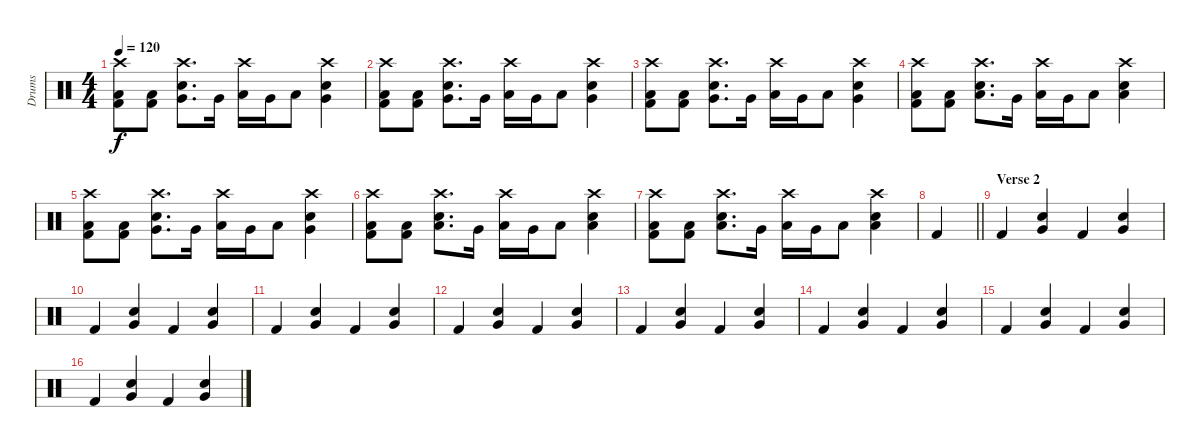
\track ("Drums" "Drums") {instrument percussion}
\staff {score}
\articulation defaults
\ts (4 4)
\tempo 120
\clef neutral
\ks c
("Low Floor Tom (hit)" "Kick (hit) 2" "Crash high (hit)").8{dy f} ("Low Floor Tom (hit)" "Kick (hit) 2").8 ("Very Low Tom (hit)" "Electric Snare (hit)" "Crash high (hit)").8{d} "Very Low Tom (hit)".16 ("Low Tom (hit)" "Crash high (hit)").16 "Very Low Tom (hit)".16 "Low Tom (hit)".8 ("Electric Snare (hit)" "Very Low Tom (hit)" "Crash high (hit)").4 |
("Low Floor Tom (hit)" "Kick (hit) 2" "Crash high (hit)").8 ("Low Floor Tom (hit)" "Kick (hit) 2").8 ("Very Low Tom (hit)" "Electric Snare (hit)" "Crash high (hit)").8{d} "Very Low Tom (hit)".16 ("Low Tom (hit)" "Crash high (hit)").16 "Very Low Tom (hit)".16 "Low Tom (hit)".8 ("Electric Snare (hit)" "Very Low Tom (hit)" "Crash high (hit)").4 |
("Low Floor Tom (hit)" "Kick (hit) 2" "Crash high (hit)").8 ("Low Floor Tom (hit)" "Kick (hit) 2").8 ("Very Low Tom (hit)" "Electric Snare (hit)" "Crash high (hit)").8{d} "Very Low Tom (hit)".16 ("Low Tom (hit)" "Crash high (hit)").16 "Very Low Tom (hit)".16 "Low Tom (hit)".8 ("Electric Snare (hit)" "Very Low Tom (hit)" "Crash high (hit)").4 |
("Low Floor Tom (hit)" "Kick (hit) 2" "Crash high (hit)").8 ("Low Floor Tom (hit)" "Kick (hit) 2").8 ("Low Tom (hit)" "Electric Snare (hit)" "Crash high (hit)").8{d} "Very Low Tom (hit)".16 ("Low Tom (hit)" "Crash high (hit)").16 "Very Low Tom (hit)".16 "Low Tom (hit)".8 ("Electric Snare (hit)" "Low Tom (hit)" "Crash high (hit)").4 |
("Low Floor Tom (hit)" "Kick (hit) 2" "Crash high (hit)").8 ("Low Floor Tom (hit)" "Kick (hit) 2").8 ("Very Low Tom (hit)" "Electric Snare (hit)" "Crash high (hit)").8{d} "Very Low Tom (hit)".16 ("Low Tom (hit)" "Crash high (hit)").16 "Very Low Tom (hit)".16 "Low Tom (hit)".8 ("Electric Snare (hit)" "Very Low Tom (hit)" "Crash high (hit)").4 |
("Low Floor Tom (hit)" "Kick (hit) 2" "Crash high (hit)").8 ("Low Floor Tom (hit)" "Kick (hit) 2").8 ("Low Tom (hit)" "Electric Snare (hit)" "Crash high (hit)").8{d} "Very Low Tom (hit)".16 ("Low Tom (hit)" "Crash high (hit)").16 "Very Low Tom (hit)".16 "Low Tom (hit)".8 ("Electric Snare (hit)" "Low Tom (hit)" "Crash high (hit)").4 |
("Low Floor Tom (hit)" "Kick (hit) 2" "Crash high (hit)").8 ("Low Floor Tom (hit)" "Kick (hit) 2").8 ("Low Tom (hit)" "Electric Snare (hit)" "Crash high (hit)").8{d} "Very Low Tom (hit)".16 ("Low Tom (hit)" "Crash high (hit)").16 "Very Low Tom (hit)".16 "Low Tom (hit)".8 ("Electric Snare (hit)" "Low Tom (hit)" "Crash high (hit)").4 |
\barLineRight lightlight "Kick (hit) 2".4
|
\section ("" "Verse 2")
"Kick (hit) 2".4 ("Electric Snare (hit)" "Very Low Tom (hit)").4 "Kick (hit) 2".4 ("Electric Snare (hit)" "Very Low Tom (hit)").4 |
"Kick (hit) 2".4 ("Electric Snare (hit)" "Very Low Tom (hit)").4 "Kick (hit) 2".4 ("Electric Snare (hit)" "Very Low Tom (hit)").4 |
"Kick (hit) 2".4 ("Electric Snare (hit)" "Very Low Tom (hit)").4 "Kick (hit) 2".4 ("Electric Snare (hit)" "Very Low Tom (hit)").4 |
"Kick (hit) 2".4 ("Electric Snare (hit)" "Very Low Tom (hit)").4 "Kick (hit) 2".4 ("Electric Snare (hit)" "Very Low Tom (hit)").4 |
"Kick (hit) 2".4 ("Electric Snare (hit)" "Very Low Tom (hit)").4 "Kick (hit) 2".4 ("Electric Snare (hit)" "Very Low Tom (hit)").4 |
"Kick (hit) 2".4 ("Electric Snare (hit)" "Very Low Tom (hit)").4 "Kick (hit) 2".4 ("Electric Snare (hit)" "Very Low Tom (hit)").4 |
"Kick (hit) 2".4 ("Electric Snare (hit)" "Very Low Tom (hit)").4 "Kick (hit) 2".4 ("Electric Snare (hit)" "Very Low Tom (hit)").4 |
"Kick (hit) 2".4 ("Electric Snare (hit)" "Very Low Tom (hit)").4 "Kick (hit) 2".4 ("Electric Snare (hit)" "Very Low Tom (hit)").4
